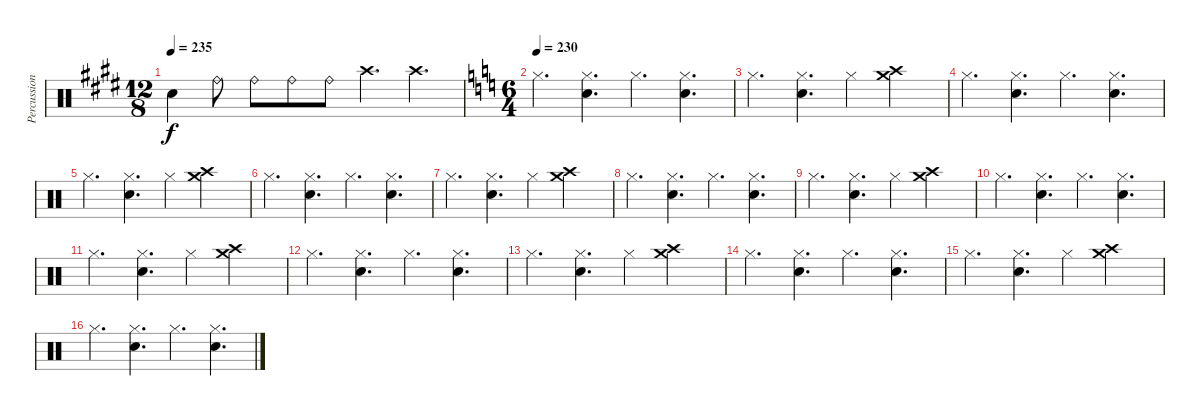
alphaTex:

\track ("Percussion" "Percussion") {instrument percussion}
\staff {score}
\articulation defaults
\ts (12 8)
\tempo 235
\clef neutral
\ks e "Snare (hit) 2".4{dy f} "Ride (bell)".8 "Ride (bell)".8 "Ride (bell)".8 "Ride (bell)".8 "Crash high (hit)".4{d} "Crash high (hit)".4{d}
|
\ts (6 4)
\tempo 230
\ks c "Hi-Hat (closed)".4{d}
("Hi-Hat (closed)" "Snare (hit) 2").4{d} "Hi-Hat (closed)".4{d} ("Hi-Hat (closed)" "Snare (hit) 2").4{d} |
"Hi-Hat (closed)".4{d} ("Hi-Hat (closed)" "Snare (hit) 2").4{d} "Hi-Hat (closed)".4 ("Crash high (hit)" "Crash medium (hit)").2 |
"Hi-Hat (closed)".4{d} ("Hi-Hat (closed)" "Snare (hit) 2").4{d} "Hi-Hat (closed)".4{d} ("Hi-Hat (closed)" "Snare (hit) 2").4{d} |
"Hi-Hat (closed)".4{d} ("Hi-Hat (closed)" "Snare (hit) 2").4{d} "Hi-Hat (closed)".4 ("Crash high (hit)" "Crash medium (hit)").2 |
"Hi-Hat (closed)".4{d} ("Hi-Hat (closed)" "Snare (hit) 2").4{d} "Hi-Hat (closed)".4{d} ("Hi-Hat (closed)" "Snare (hit) 2").4{d} |
"Hi-Hat (closed)".4{d} ("Hi-Hat (closed)" "Snare (hit) 2").4{d} "Hi-Hat (closed)".4 ("Crash high (hit)" "Crash medium (hit)").2 |
"Hi-Hat (closed)".4{d} ("Hi-Hat (closed)" "Snare (hit) 2").4{d} "Hi-Hat (closed)".4{d} ("Hi-Hat (closed)" "Snare (hit) 2").4{d} |
"Hi-Hat (closed)".4{d} ("Hi-Hat (closed)" "Snare (hit) 2").4{d} "Hi-Hat (closed)".4 ("Crash high (hit)" "Crash medium (hit)").2 |
"Hi-Hat (closed)".4{d} ("Hi-Hat (closed)" "Snare (hit) 2").4{d} "Hi-Hat (closed)".4{d} ("Hi-Hat (closed)" "Snare (hit) 2").4{d} |
"Hi-Hat (closed)".4{d} ("Hi-Hat (closed)" "Snare (hit) 2").4{d} "Hi-Hat (closed)".4 ("Crash high (hit)" "Crash medium (hit)").2 |
"Hi-Hat (closed)".4{d} ("Hi-Hat (closed)" "Snare (hit) 2").4{d} "Hi-Hat (closed)".4{d} ("Hi-Hat (closed)" "Snare (hit) 2").4{d} |
"Hi-Hat (closed)".4{d} ("Hi-Hat (closed)" "Snare (hit) 2").4{d} "Hi-Hat (closed)".4 ("Crash high (hit)" "Crash medium (hit)").2 |
"Hi-Hat (closed)".4{d} ("Hi-Hat (closed)" "Snare (hit) 2").4{d} "Hi-Hat (closed)".4{d} ("Hi-Hat (closed)" "Snare (hit) 2").4{d} |
"Hi-Hat (closed)".4{d} ("Hi-Hat (closed)" "Snare (hit) 2").4{d} "Hi-Hat (closed)".4 ("Crash high (hit)" "Crash medium (hit)").2 |
"Hi-Hat (closed)".4{d} ("Hi-Hat (closed)" "Snare (hit) 2").4{d} "Hi-Hat (closed)".4{d} ("Hi-Hat (closed)" "Snare (hit) 2").4{d}
